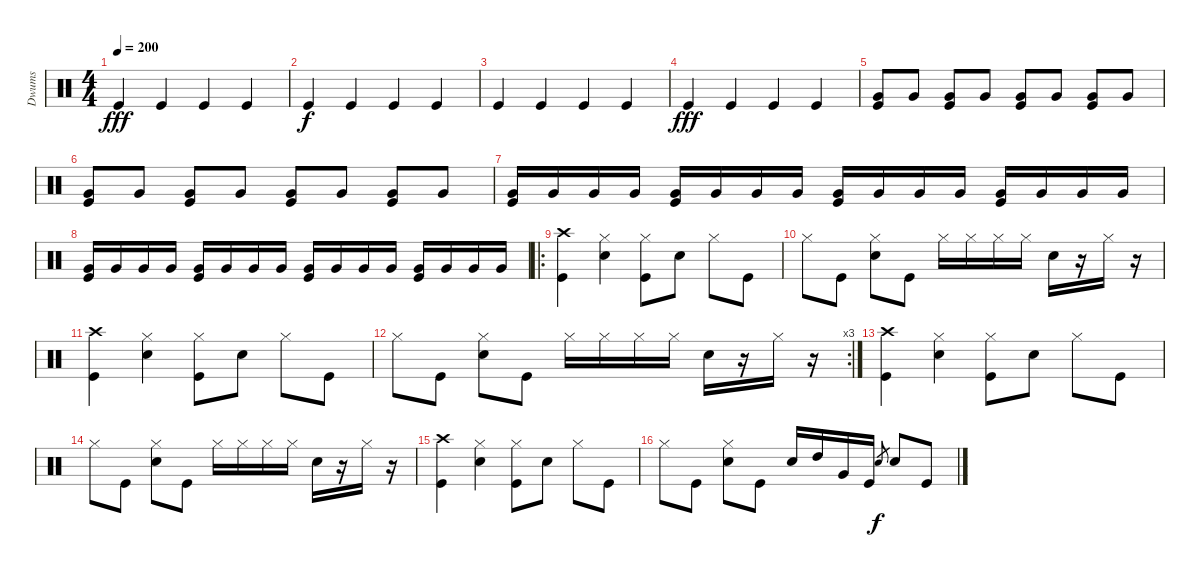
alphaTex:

\track ("Dwums" "Dwums") {instrument percussion}
\staff {score}
\articulation defaults
\ts (4 4)
\tempo 200
\clef neutral
\ks c "Kick (hit)".4{dy fff} "Kick (hit)".4 "Kick (hit)".4 "Kick (hit)".4
|
"Kick (hit)".4{dy f} "Kick (hit)".4 "Kick (hit)".4 "Kick (hit)".4 |
"Kick (hit)".4 "Kick (hit)".4 "Kick (hit)".4 "Kick (hit)".4 |
"Kick (hit)".4{dy fff} "Kick (hit)".4 "Kick (hit)".4 "Kick (hit)".4 |
("Kick (hit)" "Very Low Tom (hit)").8 "Very Low Tom (hit)".8 ("Kick (hit)" "Very Low Tom (hit)").8 "Very Low Tom (hit)".8 ("Kick (hit)" "Very Low Tom (hit)").8 "Very Low Tom (hit)".8 ("Kick (hit)" "Very Low Tom (hit)").8 "Very Low Tom (hit)".8 |
("Kick (hit)" "Very Low Tom (hit)").8 "Very Low Tom (hit)".8 ("Kick (hit)" "Very Low Tom (hit)").8 "Very Low Tom (hit)".8 ("Kick (hit)" "Very Low Tom (hit)").8 "Very Low Tom (hit)".8 ("Kick (hit)" "Very Low Tom (hit)").8 "Very Low Tom (hit)".8 |
("Kick (hit)" "Very Low Tom (hit)").16 "Very Low Tom (hit)".16 "Very Low Tom (hit)".16 "Very Low Tom (hit)".16 ("Kick (hit)" "Very Low Tom (hit)").16 "Very Low Tom (hit)".16 "Very Low Tom (hit)".16 "Very Low Tom (hit)".16 ("Kick (hit)" "Very Low Tom (hit)").16 "Very Low Tom (hit)".16 "Very Low Tom (hit)".16 "Very Low Tom (hit)".16 ("Kick (hit)" "Very Low Tom (hit)").16 "Very Low Tom (hit)".16 "Very Low Tom (hit)".16 "Very Low Tom (hit)".16 |
("Kick (hit)" "Very Low Tom (hit)").16 "Very Low Tom (hit)".16 "Very Low Tom (hit)".16 "Very Low Tom (hit)".16 ("Kick (hit)" "Very Low Tom (hit)").16 "Very Low Tom (hit)".16 "Very Low Tom (hit)".16 "Very Low Tom (hit)".16 ("Kick (hit)" "Very Low Tom (hit)").16 "Very Low Tom (hit)".16 "Very Low Tom (hit)".16 "Very Low Tom (hit)".16 ("Kick (hit)" "Very Low Tom (hit)").16 "Very Low Tom (hit)".16 "Very Low Tom (hit)".16 "Very Low Tom (hit)".16 |
\ro
("Kick (hit)" "Crash high (hit)").4 ("Hi-Hat (closed)" "Snare (hit) 2").4 ("Hi-Hat (closed)" "Kick (hit)").8 "Snare (hit) 2".8 "Hi-Hat (closed)".8 "Kick (hit)".8 |
"Hi-Hat (closed)".8 "Kick (hit)".8 ("Hi-Hat (closed)" "Snare (hit) 2").8 "Kick (hit)".8 "Hi-Hat (closed)".16 "Hi-Hat (closed)".16 "Hi-Hat (closed)".16 "Hi-Hat (closed)".16 "Snare (hit) 2".16 r.16 "Hi-Hat (closed)".16 r.16 |
("Kick (hit)" "Crash high (hit)").4 ("Hi-Hat (closed)" "Snare (hit) 2").4 ("Hi-Hat (closed)" "Kick (hit)").8 "Snare (hit) 2".8 "Hi-Hat (closed)".8 "Kick (hit)".8 |
\rc 3 "Hi-Hat (closed)".8 "Kick (hit)".8
("Hi-Hat (closed)" "Snare (hit) 2").8 "Kick (hit)".8 "Hi-Hat (closed)".16 "Hi-Hat (closed)".16 "Hi-Hat (closed)".16 "Hi-Hat (closed)".16 "Snare (hit) 2".16 r.16 "Hi-Hat (closed)".16 r.16 |
("Kick (hit)" "Crash high (hit)").4 ("Hi-Hat (closed)" "Snare (hit) 2").4 ("Hi-Hat (closed)" "Kick (hit)").8 "Snare (hit) 2".8 "Hi-Hat (closed)".8 "Kick (hit)".8 |
"Hi-Hat (closed)".8 "Kick (hit)".8 ("Hi-Hat (closed)" "Snare (hit) 2").8 "Kick (hit)".8 "Hi-Hat (closed)".16 "Hi-Hat (closed)".16 "Hi-Hat (closed)".16 "Hi-Hat (closed)".16 "Snare (hit) 2".16 r.16 "Hi-Hat (closed)".16 r.16 |
("Kick (hit)" "Crash high (hit)").4 ("Hi-Hat (closed)" "Snare (hit) 2").4 ("Hi-Hat (closed)" "Kick (hit)").8 "Snare (hit) 2".8 "Hi-Hat (closed)".8 "Kick (hit)".8 |
"Hi-Hat (closed)".8 "Kick (hit)".8 ("Hi-Hat (closed)" "Snare (hit) 2").8 "Kick (hit)".8 "Snare (hit) 2".16 "High Tom (hit)".16 "Very Low Tom (hit)".16 "Kick (hit)".16 "Snare (hit) 2".8{gr dy f} "Snare (hit) 2".8 "Kick (hit)".8
